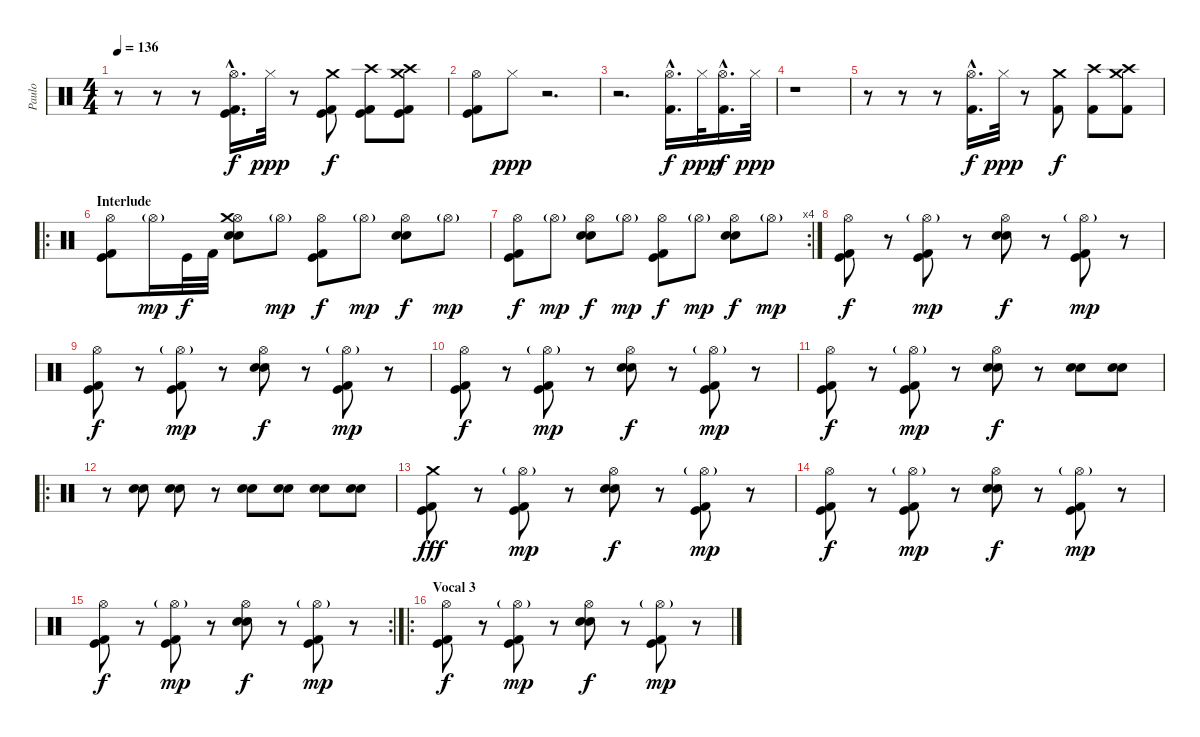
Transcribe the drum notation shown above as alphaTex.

\track ("Paulo" "Paulo") {instrument percussion}
\staff {score}
\articulation defaults
\ts (4 4)
\tempo 136
\clef neutral
\ks c
r.8{dy ppp} r.8 r.8 ("Hi-Hat (open)"{hac} "Kick (hit) 2"{hac} "Kick (hit)"{hac}).16{d dy f} "Hi-Hat (closed)".32{dy ppp} r.8 ("Crash medium (hit)" "Kick (hit) 2" "Kick (hit)").8{dy f} ("Crash high (hit)" "Kick (hit) 2" "Kick (hit)").8 ("Crash medium (hit)" "Crash high (hit)" "Kick (hit) 2" "Kick (hit)").8 |
("Hi-Hat (open)" "Kick (hit) 2" "Kick (hit)").8 "Hi-Hat (closed)".8{dy ppp} r.2{d} |
r.2{d} ("Hi-Hat (open)"{hac} "Kick (hit) 2"{hac}).16{d dy f} "Hi-Hat (closed)".32{dy ppp} ("Hi-Hat (open)"{hac} "Kick (hit) 2"{hac}).16{d dy f} "Hi-Hat (closed)".32{dy ppp} |
r.1 |
r.8 r.8 r.8 ("Hi-Hat (open)"{hac} "Kick (hit) 2"{hac}).16{d dy f} "Hi-Hat (closed)".32{dy ppp} r.8 ("Crash medium (hit)" "Kick (hit) 2").8{dy f} ("Crash high (hit)" "Kick (hit) 2").8 ("Crash medium (hit)" "Crash high (hit)" "Kick (hit) 2").8 |
\ro
\section ("" "Interlude")
("Hi-Hat (open)" "Kick (hit) 2" "Kick (hit)").8 "Hi-Hat (open)"{g}.16{dy mp} "Kick (hit)".32{dy f} "Kick (hit) 2".32 ("Hi-Hat (open)" "Snare (hit) 2" "Electric Snare (hit)" "Crash medium (hit)").8 "Hi-Hat (open)"{g}.8{dy mp} ("Hi-Hat (open)" "Kick (hit) 2" "Kick (hit)").8{dy f} "Hi-Hat (open)"{g}.8{dy mp} ("Hi-Hat (open)" "Snare (hit) 2" "Electric Snare (hit)").8{dy f} "Hi-Hat (open)"{g}.8{dy mp} |
\rc 4
("Hi-Hat (open)" "Kick (hit) 2" "Kick (hit)").8{dy f} "Hi-Hat (open)"{g}.8{dy mp} ("Hi-Hat (open)" "Snare (hit) 2" "Electric Snare (hit)").8{dy f} "Hi-Hat (open)"{g}.8{dy mp} ("Hi-Hat (open)" "Kick (hit) 2" "Kick (hit)").8{dy f} "Hi-Hat (open)"{g}.8{dy mp} ("Hi-Hat (open)" "Snare (hit) 2" "Electric Snare (hit)").8{dy f} "Hi-Hat (open)"{g}.8{dy mp} |
("Hi-Hat (open)" "Kick (hit) 2" "Kick (hit)").8{dy f} r.8 ("Hi-Hat (open)"{g} "Kick (hit) 2" "Kick (hit)").8{dy mp} r.8 ("Hi-Hat (open)" "Snare (hit) 2" "Electric Snare (hit)").8{dy f} r.8 ("Hi-Hat (open)"{g} "Kick (hit) 2" "Kick (hit)").8{dy mp} r.8 |
("Hi-Hat (open)" "Kick (hit) 2" "Kick (hit)").8{dy f} r.8 ("Hi-Hat (open)"{g} "Kick (hit) 2" "Kick (hit)").8{dy mp} r.8 ("Hi-Hat (open)" "Snare (hit) 2" "Electric Snare (hit)").8{dy f} r.8 ("Hi-Hat (open)"{g} "Kick (hit) 2" "Kick (hit)").8{dy mp} r.8 |
("Hi-Hat (open)" "Kick (hit) 2" "Kick (hit)").8{dy f} r.8 ("Hi-Hat (open)"{g} "Kick (hit) 2" "Kick (hit)").8{dy mp} r.8 ("Hi-Hat (open)" "Snare (hit) 2" "Electric Snare (hit)").8{dy f} r.8 ("Hi-Hat (open)"{g} "Kick (hit) 2" "Kick (hit)").8{dy mp} r.8 |
("Hi-Hat (open)" "Kick (hit) 2" "Kick (hit)").8{dy f} r.8 ("Hi-Hat (open)"{g} "Kick (hit) 2" "Kick (hit)").8{dy mp} r.8 ("Hi-Hat (open)" "Snare (hit) 2" "Electric Snare (hit)").8{dy f} r.8 ("Snare (hit) 2" "Electric Snare (hit)").8 ("Snare (hit) 2" "Electric Snare (hit)").8 |
\ro
r.8 ("Snare (hit) 2" "Electric Snare (hit)").8 ("Snare (hit) 2" "Electric Snare (hit)").8 r.8 ("Snare (hit) 2" "Electric Snare (hit)").8 ("Snare (hit) 2" "Electric Snare (hit)").8 ("Snare (hit) 2" "Electric Snare (hit)").8 ("Snare (hit) 2" "Electric Snare (hit)").8 |
("Crash medium (hit)" "Kick (hit) 2" "Kick (hit)").8{dy fff} r.8 ("Hi-Hat (open)"{g} "Kick (hit) 2" "Kick (hit)").8{dy mp} r.8 ("Hi-Hat (open)" "Snare (hit) 2" "Electric Snare (hit)").8{dy f} r.8 ("Hi-Hat (open)"{g} "Kick (hit) 2" "Kick (hit)").8{dy mp} r.8 |
("Hi-Hat (open)" "Kick (hit) 2" "Kick (hit)").8{dy f} r.8 ("Hi-Hat (open)"{g} "Kick (hit) 2" "Kick (hit)").8{dy mp} r.8 ("Hi-Hat (open)" "Snare (hit) 2" "Electric Snare (hit)").8{dy f} r.8 ("Hi-Hat (open)"{g} "Kick (hit) 2" "Kick (hit)").8{dy mp} r.8 |
\rc 2
("Hi-Hat (open)" "Kick (hit) 2" "Kick (hit)").8{dy f} r.8 ("Hi-Hat (open)"{g} "Kick (hit) 2" "Kick (hit)").8{dy mp} r.8 ("Hi-Hat (open)" "Snare (hit) 2" "Electric Snare (hit)").8{dy f} r.8 ("Hi-Hat (open)"{g} "Kick (hit) 2" "Kick (hit)").8{dy mp} r.8 |
\ro
\section ("" "Vocal 3")
("Hi-Hat (open)" "Kick (hit) 2" "Kick (hit)").8{dy f} r.8 ("Hi-Hat (open)"{g} "Kick (hit) 2" "Kick (hit)").8{dy mp} r.8 ("Hi-Hat (open)" "Snare (hit) 2" "Electric Snare (hit)").8{dy f} r.8 ("Hi-Hat (open)"{g} "Kick (hit) 2" "Kick (hit)").8{dy mp} r.8
